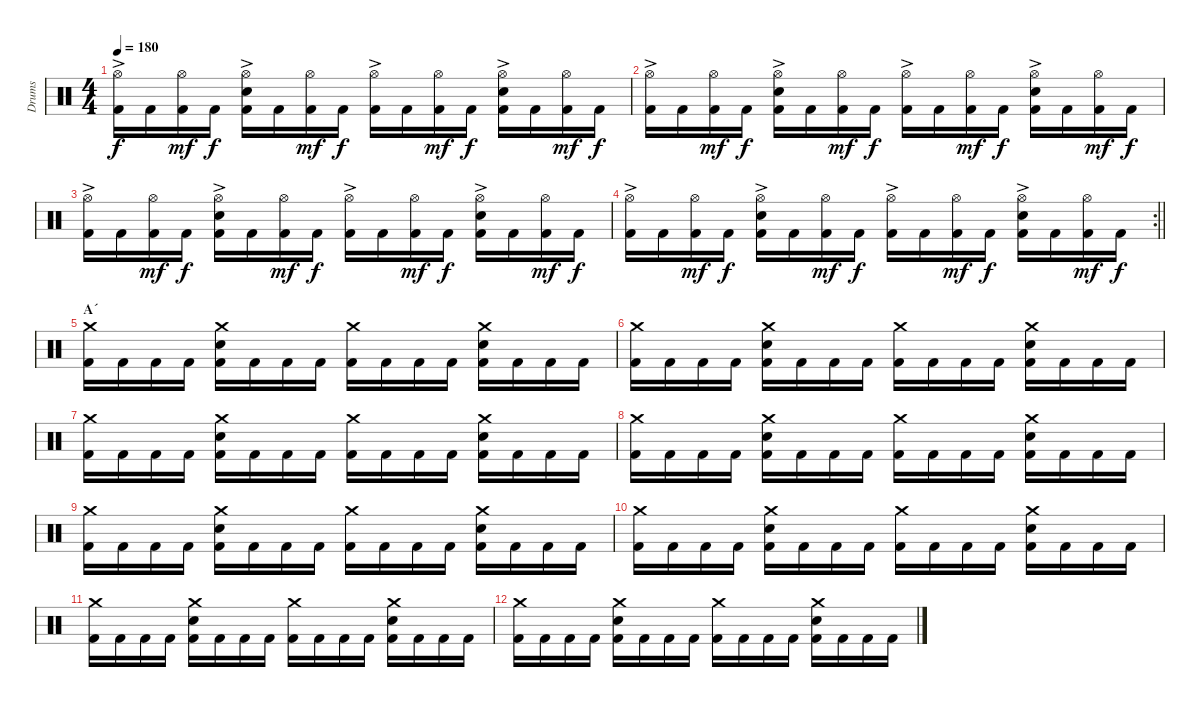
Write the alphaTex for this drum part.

\track ("Drums" "Drums") {instrument percussion}
\staff {score}
\articulation defaults
\ts (4 4)
\tempo 180
\clef neutral
\ks c
("Hi-Hat (open)"{ac} "Kick (hit) 2").16{dy f} "Kick (hit) 2".16 ("Hi-Hat (open)" "Kick (hit) 2").16{dy mf} "Kick (hit) 2".16{dy f} ("Hi-Hat (open)"{ac} "Electric Snare (hit)" "Kick (hit) 2").16 "Kick (hit) 2".16 ("Hi-Hat (open)" "Kick (hit) 2").16{dy mf} "Kick (hit) 2".16{dy f} ("Hi-Hat (open)"{ac} "Kick (hit) 2").16 "Kick (hit) 2".16 ("Hi-Hat (open)" "Kick (hit) 2").16{dy mf} "Kick (hit) 2".16{dy f} ("Hi-Hat (open)"{ac} "Electric Snare (hit)" "Kick (hit) 2").16 "Kick (hit) 2".16 ("Hi-Hat (open)" "Kick (hit) 2").16{dy mf} "Kick (hit) 2".16{dy f} |
("Hi-Hat (open)"{ac} "Kick (hit) 2").16 "Kick (hit) 2".16 ("Hi-Hat (open)" "Kick (hit) 2").16{dy mf} "Kick (hit) 2".16{dy f} ("Hi-Hat (open)"{ac} "Electric Snare (hit)" "Kick (hit) 2").16 "Kick (hit) 2".16 ("Hi-Hat (open)" "Kick (hit) 2").16{dy mf} "Kick (hit) 2".16{dy f} ("Hi-Hat (open)"{ac} "Kick (hit) 2").16 "Kick (hit) 2".16 ("Hi-Hat (open)" "Kick (hit) 2").16{dy mf} "Kick (hit) 2".16{dy f} ("Hi-Hat (open)"{ac} "Electric Snare (hit)" "Kick (hit) 2").16 "Kick (hit) 2".16 ("Hi-Hat (open)" "Kick (hit) 2").16{dy mf} "Kick (hit) 2".16{dy f} |
("Hi-Hat (open)"{ac} "Kick (hit) 2").16 "Kick (hit) 2".16 ("Hi-Hat (open)" "Kick (hit) 2").16{dy mf} "Kick (hit) 2".16{dy f} ("Hi-Hat (open)"{ac} "Electric Snare (hit)" "Kick (hit) 2").16 "Kick (hit) 2".16 ("Hi-Hat (open)" "Kick (hit) 2").16{dy mf} "Kick (hit) 2".16{dy f} ("Hi-Hat (open)"{ac} "Kick (hit) 2").16 "Kick (hit) 2".16 ("Hi-Hat (open)" "Kick (hit) 2").16{dy mf} "Kick (hit) 2".16{dy f} ("Hi-Hat (open)"{ac} "Electric Snare (hit)" "Kick (hit) 2").16 "Kick (hit) 2".16 ("Hi-Hat (open)" "Kick (hit) 2").16{dy mf} "Kick (hit) 2".16{dy f} |
\rc 2
\barLineRight lightlight
("Hi-Hat (open)"{ac} "Kick (hit) 2").16 "Kick (hit) 2".16 ("Hi-Hat (open)" "Kick (hit) 2").16{dy mf} "Kick (hit) 2".16{dy f} ("Hi-Hat (open)"{ac} "Electric Snare (hit)" "Kick (hit) 2").16 "Kick (hit) 2".16 ("Hi-Hat (open)" "Kick (hit) 2").16{dy mf} "Kick (hit) 2".16{dy f} ("Hi-Hat (open)"{ac} "Kick (hit) 2").16 "Kick (hit) 2".16 ("Hi-Hat (open)" "Kick (hit) 2").16{dy mf} "Kick (hit) 2".16{dy f} ("Hi-Hat (open)"{ac} "Electric Snare (hit)" "Kick (hit) 2").16 "Kick (hit) 2".16 ("Hi-Hat (open)" "Kick (hit) 2").16{dy mf} "Kick (hit) 2".16{dy f} |
\section ("" "A´")
("Crash medium (hit)" "Kick (hit) 2").16 "Kick (hit) 2".16 "Kick (hit) 2".16 "Kick (hit) 2".16 ("Crash medium (hit)" "Electric Snare (hit)" "Kick (hit) 2").16 "Kick (hit) 2".16 "Kick (hit) 2".16 "Kick (hit) 2".16 ("Crash medium (hit)" "Kick (hit) 2").16 "Kick (hit) 2".16 "Kick (hit) 2".16 "Kick (hit) 2".16 ("Crash medium (hit)" "Electric Snare (hit)" "Kick (hit) 2").16 "Kick (hit) 2".16 "Kick (hit) 2".16 "Kick (hit) 2".16 |
("Crash medium (hit)" "Kick (hit) 2").16 "Kick (hit) 2".16 "Kick (hit) 2".16 "Kick (hit) 2".16 ("Crash medium (hit)" "Electric Snare (hit)" "Kick (hit) 2").16 "Kick (hit) 2".16 "Kick (hit) 2".16 "Kick (hit) 2".16 ("Crash medium (hit)" "Kick (hit) 2").16 "Kick (hit) 2".16 "Kick (hit) 2".16 "Kick (hit) 2".16 ("Crash medium (hit)" "Electric Snare (hit)" "Kick (hit) 2").16 "Kick (hit) 2".16 "Kick (hit) 2".16 "Kick (hit) 2".16 |
("Crash medium (hit)" "Kick (hit) 2").16 "Kick (hit) 2".16 "Kick (hit) 2".16 "Kick (hit) 2".16 ("Crash medium (hit)" "Electric Snare (hit)" "Kick (hit) 2").16 "Kick (hit) 2".16 "Kick (hit) 2".16 "Kick (hit) 2".16 ("Crash medium (hit)" "Kick (hit) 2").16 "Kick (hit) 2".16 "Kick (hit) 2".16 "Kick (hit) 2".16 ("Crash medium (hit)" "Electric Snare (hit)" "Kick (hit) 2").16 "Kick (hit) 2".16 "Kick (hit) 2".16 "Kick (hit) 2".16 |
("Crash medium (hit)" "Kick (hit) 2").16 "Kick (hit) 2".16 "Kick (hit) 2".16 "Kick (hit) 2".16 ("Crash medium (hit)" "Electric Snare (hit)" "Kick (hit) 2").16 "Kick (hit) 2".16 "Kick (hit) 2".16 "Kick (hit) 2".16 ("Crash medium (hit)" "Kick (hit) 2").16 "Kick (hit) 2".16 "Kick (hit) 2".16 "Kick (hit) 2".16 ("Crash medium (hit)" "Electric Snare (hit)" "Kick (hit) 2").16 "Kick (hit) 2".16 "Kick (hit) 2".16 "Kick (hit) 2".16 |
("Crash medium (hit)" "Kick (hit) 2").16 "Kick (hit) 2".16 "Kick (hit) 2".16 "Kick (hit) 2".16 ("Crash medium (hit)" "Electric Snare (hit)" "Kick (hit) 2").16 "Kick (hit) 2".16 "Kick (hit) 2".16 "Kick (hit) 2".16 ("Crash medium (hit)" "Kick (hit) 2").16 "Kick (hit) 2".16 "Kick (hit) 2".16 "Kick (hit) 2".16 ("Crash medium (hit)" "Electric Snare (hit)" "Kick (hit) 2").16 "Kick (hit) 2".16 "Kick (hit) 2".16 "Kick (hit) 2".16 |
("Crash medium (hit)" "Kick (hit) 2").16 "Kick (hit) 2".16 "Kick (hit) 2".16 "Kick (hit) 2".16 ("Crash medium (hit)" "Electric Snare (hit)" "Kick (hit) 2").16 "Kick (hit) 2".16 "Kick (hit) 2".16 "Kick (hit) 2".16 ("Crash medium (hit)" "Kick (hit) 2").16 "Kick (hit) 2".16 "Kick (hit) 2".16 "Kick (hit) 2".16 ("Crash medium (hit)" "Electric Snare (hit)" "Kick (hit) 2").16 "Kick (hit) 2".16 "Kick (hit) 2".16 "Kick (hit) 2".16 |
("Crash medium (hit)" "Kick (hit) 2").16 "Kick (hit) 2".16 "Kick (hit) 2".16 "Kick (hit) 2".16 ("Crash medium (hit)" "Electric Snare (hit)" "Kick (hit) 2").16 "Kick (hit) 2".16 "Kick (hit) 2".16 "Kick (hit) 2".16 ("Crash medium (hit)" "Kick (hit) 2").16 "Kick (hit) 2".16 "Kick (hit) 2".16 "Kick (hit) 2".16 ("Crash medium (hit)" "Electric Snare (hit)" "Kick (hit) 2").16 "Kick (hit) 2".16 "Kick (hit) 2".16 "Kick (hit) 2".16 |
("Crash medium (hit)" "Kick (hit) 2").16 "Kick (hit) 2".16 "Kick (hit) 2".16 "Kick (hit) 2".16 ("Crash medium (hit)" "Electric Snare (hit)" "Kick (hit) 2").16 "Kick (hit) 2".16 "Kick (hit) 2".16 "Kick (hit) 2".16 ("Crash medium (hit)" "Kick (hit) 2").16 "Kick (hit) 2".16 "Kick (hit) 2".16 "Kick (hit) 2".16 ("Crash medium (hit)" "Electric Snare (hit)" "Kick (hit) 2").16 "Kick (hit) 2".16 "Kick (hit) 2".16 "Kick (hit) 2".16
